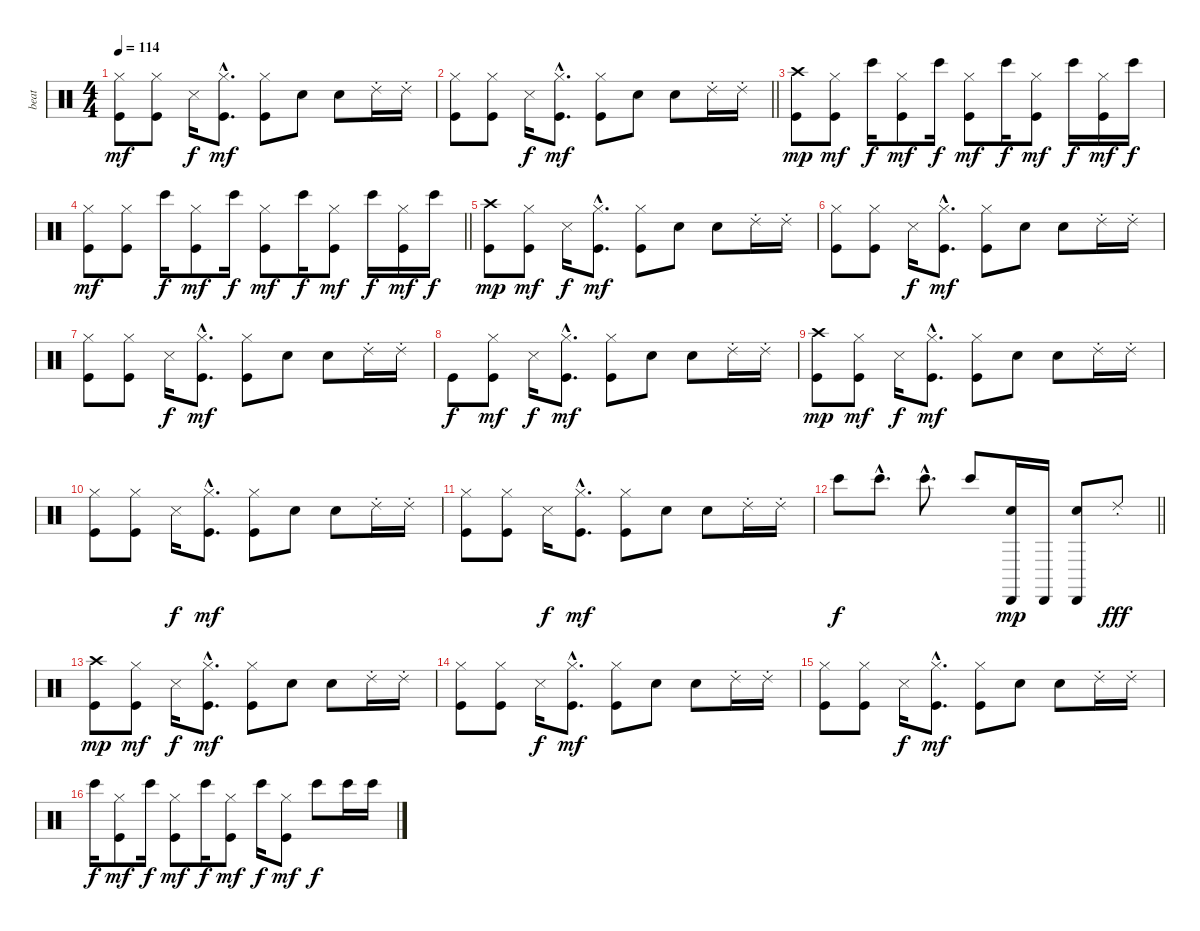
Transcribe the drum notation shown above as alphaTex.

\track ("beat" "beat") {instrument percussion}
\staff {score}
\articulation defaults
\ts (4 4)
\tempo 114
\clef neutral
\ks c
("Kick (hit)" "Hi-Hat (closed)").8{dy mf} ("Kick (hit)" "Hi-Hat (closed)").8 "Snare (side stick) 3".16{dy f} ("Kick (hit)"{hac} "Hi-Hat (closed)"{hac}).8{d dy mf} ("Kick (hit)" "Hi-Hat (closed)").8 "Hand Clap (hit)".8 "Hand Clap (hit)".8 "Ride (choke) 2".16 "Ride (choke) 2".16 |
\barLineRight lightlight
("Kick (hit)" "Hi-Hat (closed)").8 ("Kick (hit)" "Hi-Hat (closed)").8 "Snare (side stick) 3".16{dy f} ("Kick (hit)"{hac} "Hi-Hat (closed)"{hac}).8{d dy mf} ("Kick (hit)" "Hi-Hat (closed)").8 "Hand Clap (hit)".8 "Hand Clap (hit)".8 "Ride (choke) 2".16 "Ride (choke) 2".16 |
("Kick (hit)" "Crash high (hit)").8{dy mp} ("Kick (hit)" "Hi-Hat (closed)").8{dy mf} "Bongo High (hit)".16{dy f} ("Kick (hit)" "Hi-Hat (closed)").8{dy mf} "Bongo High (hit)".16{dy f} ("Kick (hit)" "Hi-Hat (closed)").8{dy mf} "Bongo High (hit)".16{dy f} ("Kick (hit)" "Hi-Hat (closed)").8{dy mf} "Bongo High (hit)".16{dy f} ("Kick (hit)" "Hi-Hat (closed)").16{dy mf} "Bongo High (hit)".16{dy f} |
\barLineRight lightlight
("Kick (hit)" "Hi-Hat (closed)").8{dy mf} ("Kick (hit)" "Hi-Hat (closed)").8 "Bongo High (hit)".16{dy f} ("Kick (hit)" "Hi-Hat (closed)").8{dy mf} "Bongo High (hit)".16{dy f} ("Kick (hit)" "Hi-Hat (closed)").8{dy mf} "Bongo High (hit)".16{dy f} ("Kick (hit)" "Hi-Hat (closed)").8{dy mf} "Bongo High (hit)".16{dy f} ("Kick (hit)" "Hi-Hat (closed)").16{dy mf} "Bongo High (hit)".16{dy f} |
("Kick (hit)" "Crash high (hit)").8{dy mp} ("Kick (hit)" "Hi-Hat (closed)").8{dy mf} "Snare (side stick) 3".16{dy f} ("Kick (hit)"{hac} "Hi-Hat (closed)"{hac}).8{d dy mf} ("Kick (hit)" "Hi-Hat (closed)").8 "Hand Clap (hit)".8 "Hand Clap (hit)".8 "Ride (choke) 2".16 "Ride (choke) 2".16 |
("Kick (hit)" "Hi-Hat (closed)").8 ("Kick (hit)" "Hi-Hat (closed)").8 "Snare (side stick) 3".16{dy f} ("Kick (hit)"{hac} "Hi-Hat (closed)"{hac}).8{d dy mf} ("Kick (hit)" "Hi-Hat (closed)").8 "Hand Clap (hit)".8 "Hand Clap (hit)".8 "Ride (choke) 2".16 "Ride (choke) 2".16 |
("Kick (hit)" "Hi-Hat (closed)").8 ("Kick (hit)" "Hi-Hat (closed)").8 "Snare (side stick) 3".16{dy f} ("Kick (hit)"{hac} "Hi-Hat (closed)"{hac}).8{d dy mf} ("Kick (hit)" "Hi-Hat (closed)").8 "Hand Clap (hit)".8 "Hand Clap (hit)".8 "Ride (choke) 2".16 "Ride (choke) 2".16 |
"Kick (hit)".8{dy f} ("Kick (hit)" "Hi-Hat (closed)").8{dy mf} "Snare (side stick) 3".16{dy f} ("Kick (hit)"{hac} "Hi-Hat (closed)"{hac}).8{d dy mf} ("Kick (hit)" "Hi-Hat (closed)").8 "Hand Clap (hit)".8 "Hand Clap (hit)".8 "Ride (choke) 2".16 "Ride (choke) 2".16 |
("Kick (hit)" "Crash high (hit)").8{dy mp} ("Kick (hit)" "Hi-Hat (closed)").8{dy mf} "Snare (side stick) 3".16{dy f} ("Kick (hit)"{hac} "Hi-Hat (closed)"{hac}).8{d dy mf} ("Kick (hit)" "Hi-Hat (closed)").8 "Hand Clap (hit)".8 "Hand Clap (hit)".8 "Ride (choke) 2".16 "Ride (choke) 2".16 |
("Kick (hit)" "Hi-Hat (closed)").8 ("Kick (hit)" "Hi-Hat (closed)").8 "Snare (side stick) 3".16{dy f} ("Kick (hit)"{hac} "Hi-Hat (closed)"{hac}).8{d dy mf} ("Kick (hit)" "Hi-Hat (closed)").8 "Hand Clap (hit)".8 "Hand Clap (hit)".8 "Ride (choke) 2".16 "Ride (choke) 2".16 |
("Kick (hit)" "Hi-Hat (closed)").8 ("Kick (hit)" "Hi-Hat (closed)").8 "Snare (side stick) 3".16{dy f} ("Kick (hit)"{hac} "Hi-Hat (closed)"{hac}).8{d dy mf} ("Kick (hit)" "Hi-Hat (closed)").8 "Hand Clap (hit)".8 "Hand Clap (hit)".8 "Ride (choke) 2".16 "Ride (choke) 2".16 |
\barLineRight lightlight "Bongo High (hit)".8{dy f} "Bongo High (hit)"{hac}.8{d} "Bongo High (hit)"{hac}.8{d} "Bongo High (hit)".8
("Cabasa (hit)" "Hand Clap (hit)").16{dy mp} "Cabasa (hit)".16 ("Cabasa (hit)" "Hand Clap (hit)").8 "Ride (choke) 2".8{dy fff} |
("Kick (hit)" "Crash high (hit)").8{dy mp} ("Kick (hit)" "Hi-Hat (closed)").8{dy mf} "Snare (side stick) 3".16{dy f} ("Kick (hit)"{hac} "Hi-Hat (closed)"{hac}).8{d dy mf} ("Kick (hit)" "Hi-Hat (closed)").8 "Hand Clap (hit)".8 "Hand Clap (hit)".8 "Ride (choke) 2".16 "Ride (choke) 2".16 |
("Kick (hit)" "Hi-Hat (closed)").8 ("Kick (hit)" "Hi-Hat (closed)").8 "Snare (side stick) 3".16{dy f} ("Kick (hit)"{hac} "Hi-Hat (closed)"{hac}).8{d dy mf} ("Kick (hit)" "Hi-Hat (closed)").8 "Hand Clap (hit)".8 "Hand Clap (hit)".8 "Ride (choke) 2".16 "Ride (choke) 2".16 |
("Kick (hit)" "Hi-Hat (closed)").8 ("Kick (hit)" "Hi-Hat (closed)").8 "Snare (side stick) 3".16{dy f} ("Kick (hit)"{hac} "Hi-Hat (closed)"{hac}).8{d dy mf} ("Kick (hit)" "Hi-Hat (closed)").8 "Hand Clap (hit)".8 "Hand Clap (hit)".8 "Ride (choke) 2".16 "Ride (choke) 2".16 |
"Bongo High (hit)".16{dy f} ("Kick (hit)" "Hi-Hat (closed)").8{dy mf} "Bongo High (hit)".16{dy f} ("Kick (hit)" "Hi-Hat (closed)").8{dy mf} "Bongo High (hit)".16{dy f} ("Kick (hit)" "Hi-Hat (closed)").8{dy mf} "Bongo High (hit)".16{dy f} ("Kick (hit)" "Hi-Hat (closed)").8{dy mf} "Bongo High (hit)".8{dy f} "Bongo High (hit)".16 "Bongo High (hit)".16
